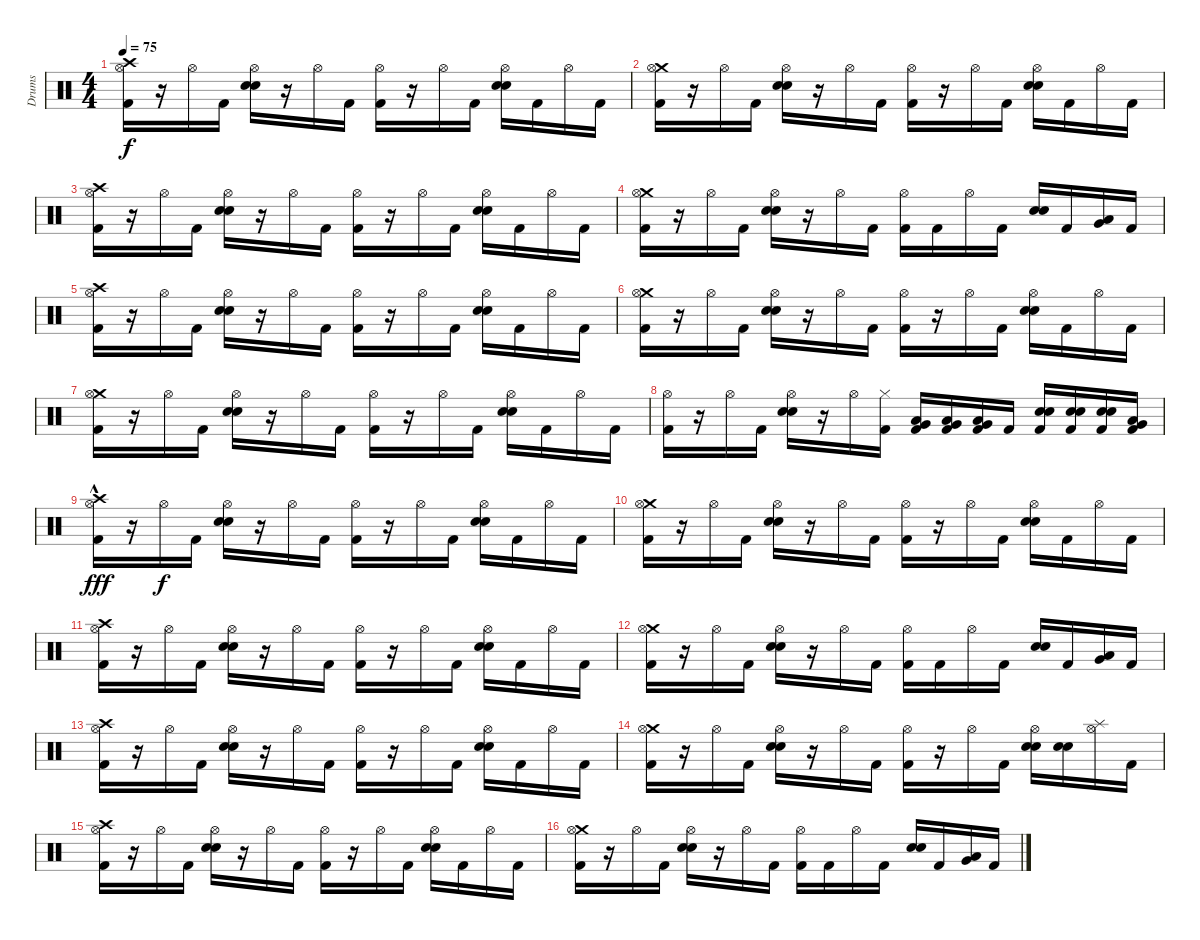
\track ("Drums" "Drums") {instrument percussion}
\staff {score}
\articulation defaults
\ts (4 4)
\tempo 75
\clef neutral
\ks c
("Crash high (hit)" "Hi-Hat (open)" "Kick (hit) 2").16{dy f} r.16 "Hi-Hat (open)".16 "Kick (hit) 2".16 ("Hi-Hat (open)" "Electric Snare (hit)" "Snare (hit) 2").16 r.16 "Hi-Hat (open)".16 "Kick (hit) 2".16 ("Hi-Hat (open)" "Kick (hit) 2").16 r.16 "Hi-Hat (open)".16 "Kick (hit) 2".16 ("Hi-Hat (open)" "Electric Snare (hit)" "Snare (hit) 2").16 "Kick (hit) 2".16 "Hi-Hat (open)".16 "Kick (hit) 2".16 |
("Crash medium (hit)" "Hi-Hat (open)" "Kick (hit) 2").16 r.16 "Hi-Hat (open)".16 "Kick (hit) 2".16 ("Hi-Hat (open)" "Electric Snare (hit)" "Snare (hit) 2").16 r.16 "Hi-Hat (open)".16 "Kick (hit) 2".16 ("Hi-Hat (open)" "Kick (hit) 2").16 r.16 "Hi-Hat (open)".16 "Kick (hit) 2".16 ("Hi-Hat (open)" "Electric Snare (hit)" "Snare (hit) 2").16 "Kick (hit) 2".16 "Hi-Hat (open)".16 "Kick (hit) 2".16 |
("Crash high (hit)" "Hi-Hat (open)" "Kick (hit) 2").16 r.16 "Hi-Hat (open)".16 "Kick (hit) 2".16 ("Hi-Hat (open)" "Electric Snare (hit)" "Snare (hit) 2").16 r.16 "Hi-Hat (open)".16 "Kick (hit) 2".16 ("Hi-Hat (open)" "Kick (hit) 2").16 r.16 "Hi-Hat (open)".16 "Kick (hit) 2".16 ("Hi-Hat (open)" "Electric Snare (hit)" "Snare (hit) 2").16 "Kick (hit) 2".16 "Hi-Hat (open)".16 "Kick (hit) 2".16 |
("Crash medium (hit)" "Hi-Hat (open)" "Kick (hit) 2").16 r.16 "Hi-Hat (open)".16 "Kick (hit) 2".16 ("Hi-Hat (open)" "Electric Snare (hit)" "Snare (hit) 2").16 r.16 "Hi-Hat (open)".16 "Kick (hit) 2".16 ("Hi-Hat (open)" "Kick (hit) 2").16 "Kick (hit) 2".16 "Hi-Hat (open)".16 "Kick (hit) 2".16 ("Electric Snare (hit)" "Snare (hit) 2").16 "Kick (hit) 2".16 ("Very Low Tom (hit)" "Low Floor Tom (hit)").16 "Kick (hit) 2".16 |
("Crash high (hit)" "Hi-Hat (open)" "Kick (hit) 2").16 r.16 "Hi-Hat (open)".16 "Kick (hit) 2".16 ("Hi-Hat (open)" "Electric Snare (hit)" "Snare (hit) 2").16 r.16 "Hi-Hat (open)".16 "Kick (hit) 2".16 ("Hi-Hat (open)" "Kick (hit) 2").16 r.16 "Hi-Hat (open)".16 "Kick (hit) 2".16 ("Hi-Hat (open)" "Electric Snare (hit)" "Snare (hit) 2").16 "Kick (hit) 2".16 "Hi-Hat (open)".16 "Kick (hit) 2".16 |
("Crash medium (hit)" "Hi-Hat (open)" "Kick (hit) 2").16 r.16 "Hi-Hat (open)".16 "Kick (hit) 2".16 ("Hi-Hat (open)" "Electric Snare (hit)" "Snare (hit) 2").16 r.16 "Hi-Hat (open)".16 "Kick (hit) 2".16 ("Hi-Hat (open)" "Kick (hit) 2").16 r.16 "Hi-Hat (open)".16 "Kick (hit) 2".16 ("Hi-Hat (open)" "Electric Snare (hit)" "Snare (hit) 2").16 "Kick (hit) 2".16 "Hi-Hat (open)".16 "Kick (hit) 2".16 |
("Crash medium (hit)" "Hi-Hat (open)" "Kick (hit) 2").16 r.16 "Hi-Hat (open)".16 "Kick (hit) 2".16 ("Hi-Hat (open)" "Electric Snare (hit)" "Snare (hit) 2").16 r.16 "Hi-Hat (open)".16 "Kick (hit) 2".16 ("Hi-Hat (open)" "Kick (hit) 2").16 r.16 "Hi-Hat (open)".16 "Kick (hit) 2".16 ("Hi-Hat (open)" "Electric Snare (hit)" "Snare (hit) 2").16 "Kick (hit) 2".16 "Hi-Hat (open)".16 "Kick (hit) 2".16 |
("Hi-Hat (open)" "Kick (hit) 2").16 r.16 "Hi-Hat (open)".16 "Kick (hit) 2".16 ("Hi-Hat (open)" "Electric Snare (hit)" "Snare (hit) 2").16 r.16 "Hi-Hat (open)".16 ("Hi-Hat (closed)" "Kick (hit) 2").16 ("Very Low Tom (hit)" "Low Tom (hit)" "Kick (hit) 2").16 ("Very Low Tom (hit)" "Low Tom (hit)" "Kick (hit) 2").16 ("Very Low Tom (hit)" "Low Tom (hit)" "Kick (hit) 2").16 "Kick (hit) 2".16 ("Electric Snare (hit)" "Snare (hit) 2" "Kick (hit) 2").16 ("Electric Snare (hit)" "Snare (hit) 2" "Kick (hit) 2").16 ("Electric Snare (hit)" "Snare (hit) 2" "Kick (hit) 2").16 ("Very Low Tom (hit)" "Low Floor Tom (hit)" "Kick (hit) 2").16 |
("Crash high (hit)"{hac} "Hi-Hat (open)" "Kick (hit) 2").16{dy fff} r.16 "Hi-Hat (open)".16{dy f} "Kick (hit) 2".16 ("Hi-Hat (open)" "Electric Snare (hit)" "Snare (hit) 2").16 r.16 "Hi-Hat (open)".16 "Kick (hit) 2".16 ("Hi-Hat (open)" "Kick (hit) 2").16 r.16 "Hi-Hat (open)".16 "Kick (hit) 2".16 ("Hi-Hat (open)" "Electric Snare (hit)" "Snare (hit) 2").16 "Kick (hit) 2".16 "Hi-Hat (open)".16 "Kick (hit) 2".16 |
("Crash medium (hit)" "Hi-Hat (open)" "Kick (hit) 2").16 r.16 "Hi-Hat (open)".16 "Kick (hit) 2".16 ("Hi-Hat (open)" "Electric Snare (hit)" "Snare (hit) 2").16 r.16 "Hi-Hat (open)".16 "Kick (hit) 2".16 ("Hi-Hat (open)" "Kick (hit) 2").16 r.16 "Hi-Hat (open)".16 "Kick (hit) 2".16 ("Hi-Hat (open)" "Electric Snare (hit)" "Snare (hit) 2").16 "Kick (hit) 2".16 "Hi-Hat (open)".16 "Kick (hit) 2".16 |
("Crash high (hit)" "Hi-Hat (open)" "Kick (hit) 2").16 r.16 "Hi-Hat (open)".16 "Kick (hit) 2".16 ("Hi-Hat (open)" "Electric Snare (hit)" "Snare (hit) 2").16 r.16 "Hi-Hat (open)".16 "Kick (hit) 2".16 ("Hi-Hat (open)" "Kick (hit) 2").16 r.16 "Hi-Hat (open)".16 "Kick (hit) 2".16 ("Hi-Hat (open)" "Electric Snare (hit)" "Snare (hit) 2").16 "Kick (hit) 2".16 "Hi-Hat (open)".16 "Kick (hit) 2".16 |
("Crash medium (hit)" "Hi-Hat (open)" "Kick (hit) 2").16 r.16 "Hi-Hat (open)".16 "Kick (hit) 2".16 ("Hi-Hat (open)" "Electric Snare (hit)" "Snare (hit) 2").16 r.16 "Hi-Hat (open)".16 "Kick (hit) 2".16 ("Hi-Hat (open)" "Kick (hit) 2").16 "Kick (hit) 2".16 "Hi-Hat (open)".16 "Kick (hit) 2".16 ("Electric Snare (hit)" "Snare (hit) 2").16 "Kick (hit) 2".16 ("Very Low Tom (hit)" "Low Floor Tom (hit)").16 "Kick (hit) 2".16 |
("Crash high (hit)" "Hi-Hat (open)" "Kick (hit) 2").16 r.16 "Hi-Hat (open)".16 "Kick (hit) 2".16 ("Hi-Hat (open)" "Electric Snare (hit)" "Snare (hit) 2").16 r.16 "Hi-Hat (open)".16 "Kick (hit) 2".16 ("Hi-Hat (open)" "Kick (hit) 2").16 r.16 "Hi-Hat (open)".16 "Kick (hit) 2".16 ("Hi-Hat (open)" "Electric Snare (hit)" "Snare (hit) 2").16 "Kick (hit) 2".16 "Hi-Hat (open)".16 "Kick (hit) 2".16 |
("Crash medium (hit)" "Hi-Hat (open)" "Kick (hit) 2").16 r.16 "Hi-Hat (open)".16 "Kick (hit) 2".16 ("Hi-Hat (open)" "Electric Snare (hit)" "Snare (hit) 2").16 r.16 "Hi-Hat (open)".16 "Kick (hit) 2".16 ("Hi-Hat (open)" "Kick (hit) 2").16 r.16 "Hi-Hat (open)".16 "Kick (hit) 2".16 ("Hi-Hat (open)" "Electric Snare (hit)" "Snare (hit) 2").16 ("Electric Snare (hit)" "Snare (hit) 2").16 ("Splash (hit)" "Hi-Hat (open)").16 "Kick (hit) 2".16 |
("Crash high (hit)" "Hi-Hat (open)" "Kick (hit) 2").16 r.16 "Hi-Hat (open)".16 "Kick (hit) 2".16 ("Hi-Hat (open)" "Electric Snare (hit)" "Snare (hit) 2").16 r.16 "Hi-Hat (open)".16 "Kick (hit) 2".16 ("Hi-Hat (open)" "Kick (hit) 2").16 r.16 "Hi-Hat (open)".16 "Kick (hit) 2".16 ("Hi-Hat (open)" "Electric Snare (hit)" "Snare (hit) 2").16 "Kick (hit) 2".16 "Hi-Hat (open)".16 "Kick (hit) 2".16 |
("Crash medium (hit)" "Hi-Hat (open)" "Kick (hit) 2").16 r.16 "Hi-Hat (open)".16 "Kick (hit) 2".16 ("Hi-Hat (open)" "Electric Snare (hit)" "Snare (hit) 2").16 r.16 "Hi-Hat (open)".16 "Kick (hit) 2".16 ("Hi-Hat (open)" "Kick (hit) 2").16 "Kick (hit) 2".16 "Hi-Hat (open)".16 "Kick (hit) 2".16 ("Electric Snare (hit)" "Snare (hit) 2").16 "Kick (hit) 2".16 ("Very Low Tom (hit)" "Low Floor Tom (hit)").16 "Kick (hit) 2".16
